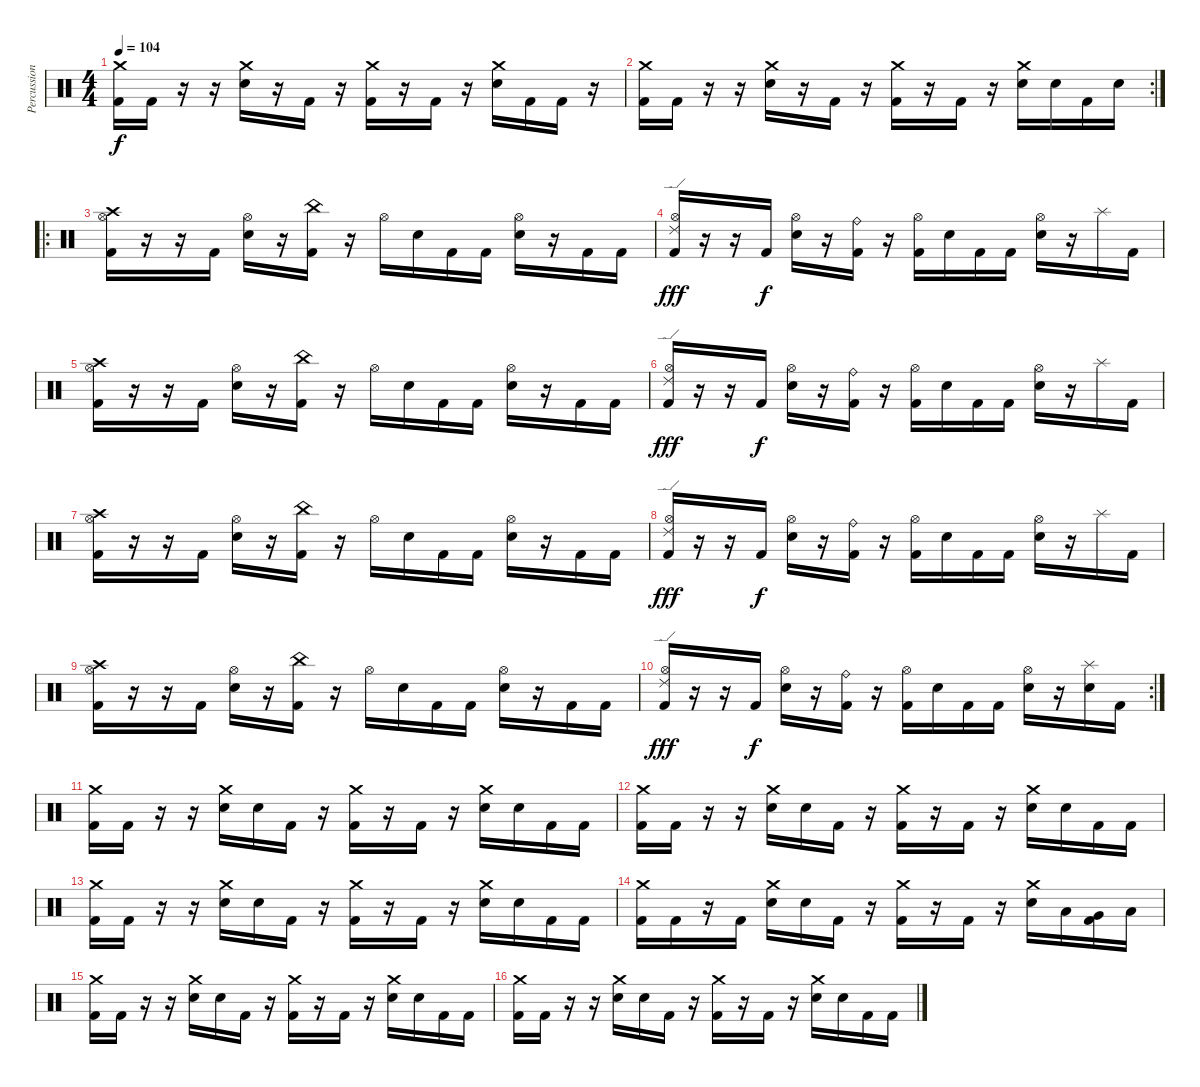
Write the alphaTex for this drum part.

\track ("Percussion" "Percussion") {instrument percussion}
\staff {score}
\articulation defaults
\ts (4 4)
\tempo 104
\clef neutral
\ks c
("Crash medium (hit)" "Kick (hit) 2").16{dy f} "Kick (hit) 2".16 r.16 r.16 ("Crash medium (hit)" "Electric Snare (hit)").16 r.16 "Kick (hit) 2".16 r.16 ("Crash medium (hit)" "Kick (hit) 2").16 r.16 "Kick (hit) 2".16 r.16 ("Crash medium (hit)" "Electric Snare (hit)").16 "Kick (hit) 2".16 "Kick (hit) 2".16 r.16 |
\rc 2
("Crash medium (hit)" "Kick (hit) 2").16 "Kick (hit) 2".16 r.16 r.16 ("Crash medium (hit)" "Electric Snare (hit)").16 r.16 "Kick (hit) 2".16 r.16 ("Crash medium (hit)" "Kick (hit) 2").16 r.16 "Kick (hit) 2".16 r.16 ("Crash medium (hit)" "Electric Snare (hit)").16 "Electric Snare (hit)".16 "Kick (hit) 2".16 "Electric Snare (hit)".16 |
\ro
("Crash high (hit)" "Hi-Hat (open)" "Kick (hit) 2").16 r.16 r.16 "Kick (hit) 2".16 ("Hi-Hat (open)" "Electric Snare (hit)").16 r.16 ("China (hit)" "Kick (hit) 2").16 r.16 "Hi-Hat (open)".16 "Electric Snare (hit)".16 "Kick (hit) 2".16 "Kick (hit) 2".16 ("Hi-Hat (open)" "Electric Snare (hit)").16 r.16 "Kick (hit) 2".16 "Kick (hit) 2".16 |
("Ride (edge) 2" "Hi-Hat (open)" "Kick (hit) 2").16{dy fff} r.16 r.16 "Kick (hit) 2".16{dy f} ("Hi-Hat (open)" "Electric Snare (hit)").16 r.16 ("Ride (bell)" "Kick (hit) 2").16 r.16 ("Hi-Hat (open)" "Kick (hit) 2").16 "Electric Snare (hit)".16 "Kick (hit) 2".16 "Kick (hit) 2".16 ("Hi-Hat (open)" "Electric Snare (hit)").16 r.16 "Splash (hit)".16 "Kick (hit) 2".16 |
("Crash high (hit)" "Hi-Hat (open)" "Kick (hit) 2").16 r.16 r.16 "Kick (hit) 2".16 ("Hi-Hat (open)" "Electric Snare (hit)").16 r.16 ("China (hit)" "Kick (hit) 2").16 r.16 "Hi-Hat (open)".16 "Electric Snare (hit)".16 "Kick (hit) 2".16 "Kick (hit) 2".16 ("Hi-Hat (open)" "Electric Snare (hit)").16 r.16 "Kick (hit) 2".16 "Kick (hit) 2".16 |
("Ride (edge) 2" "Hi-Hat (open)" "Kick (hit) 2").16{dy fff} r.16 r.16 "Kick (hit) 2".16{dy f} ("Hi-Hat (open)" "Electric Snare (hit)").16 r.16 ("Ride (bell)" "Kick (hit) 2").16 r.16 ("Hi-Hat (open)" "Kick (hit) 2").16 "Electric Snare (hit)".16 "Kick (hit) 2".16 "Kick (hit) 2".16 ("Hi-Hat (open)" "Electric Snare (hit)").16 r.16 "Splash (hit)".16 "Kick (hit) 2".16 |
("Crash high (hit)" "Hi-Hat (open)" "Kick (hit) 2").16 r.16 r.16 "Kick (hit) 2".16 ("Hi-Hat (open)" "Electric Snare (hit)").16 r.16 ("China (hit)" "Kick (hit) 2").16 r.16 "Hi-Hat (open)".16 "Electric Snare (hit)".16 "Kick (hit) 2".16 "Kick (hit) 2".16 ("Hi-Hat (open)" "Electric Snare (hit)").16 r.16 "Kick (hit) 2".16 "Kick (hit) 2".16 |
("Ride (edge) 2" "Hi-Hat (open)" "Kick (hit) 2").16{dy fff} r.16 r.16 "Kick (hit) 2".16{dy f} ("Hi-Hat (open)" "Electric Snare (hit)").16 r.16 ("Ride (bell)" "Kick (hit) 2").16 r.16 ("Hi-Hat (open)" "Kick (hit) 2").16 "Electric Snare (hit)".16 "Kick (hit) 2".16 "Kick (hit) 2".16 ("Hi-Hat (open)" "Electric Snare (hit)").16 r.16 "Splash (hit)".16 "Kick (hit) 2".16 |
("Crash high (hit)" "Hi-Hat (open)" "Kick (hit) 2").16 r.16 r.16 "Kick (hit) 2".16 ("Hi-Hat (open)" "Electric Snare (hit)").16 r.16 ("China (hit)" "Kick (hit) 2").16 r.16 "Hi-Hat (open)".16 "Electric Snare (hit)".16 "Kick (hit) 2".16 "Kick (hit) 2".16 ("Hi-Hat (open)" "Electric Snare (hit)").16 r.16 "Kick (hit) 2".16 "Kick (hit) 2".16 |
\rc 2
("Ride (edge) 2" "Hi-Hat (open)" "Kick (hit) 2").16{dy fff} r.16 r.16 "Kick (hit) 2".16{dy f} ("Hi-Hat (open)" "Electric Snare (hit)").16 r.16 ("Ride (bell)" "Kick (hit) 2").16 r.16 ("Hi-Hat (open)" "Kick (hit) 2").16 "Electric Snare (hit)".16 "Kick (hit) 2".16 "Kick (hit) 2".16 ("Hi-Hat (open)" "Electric Snare (hit)").16 r.16 ("Splash (hit)" "Electric Snare (hit)").16 "Kick (hit) 2".16 |
("Crash medium (hit)" "Kick (hit) 2").16 "Kick (hit) 2".16 r.16 r.16 ("Crash medium (hit)" "Electric Snare (hit)").16 "Electric Snare (hit)".16 "Kick (hit) 2".16 r.16 ("Crash medium (hit)" "Kick (hit) 2").16 r.16 "Kick (hit) 2".16 r.16 ("Crash medium (hit)" "Electric Snare (hit)").16 "Electric Snare (hit)".16 "Kick (hit) 2".16 "Kick (hit) 2".16 |
("Crash medium (hit)" "Kick (hit) 2").16 "Kick (hit) 2".16 r.16 r.16 ("Crash medium (hit)" "Electric Snare (hit)").16 "Electric Snare (hit)".16 "Kick (hit) 2".16 r.16 ("Crash medium (hit)" "Kick (hit) 2").16 r.16 "Kick (hit) 2".16 r.16 ("Crash medium (hit)" "Electric Snare (hit)").16 "Electric Snare (hit)".16 "Kick (hit) 2".16 "Kick (hit) 2".16 |
("Crash medium (hit)" "Kick (hit) 2").16 "Kick (hit) 2".16 r.16 r.16 ("Crash medium (hit)" "Electric Snare (hit)").16 "Electric Snare (hit)".16 "Kick (hit) 2".16 r.16 ("Crash medium (hit)" "Kick (hit) 2").16 r.16 "Kick (hit) 2".16 r.16 ("Crash medium (hit)" "Electric Snare (hit)").16 "Electric Snare (hit)".16 "Kick (hit) 2".16 "Kick (hit) 2".16 |
("Crash medium (hit)" "Kick (hit) 2").16 "Kick (hit) 2".16 r.16 "Kick (hit) 2".16 ("Crash medium (hit)" "Electric Snare (hit)").16 "Electric Snare (hit)".16 "Kick (hit) 2".16 r.16 ("Crash medium (hit)" "Kick (hit) 2").16 r.16 "Kick (hit) 2".16 r.16 ("Crash medium (hit)" "Electric Snare (hit)").16 "Low Tom (hit)".16 ("Very Low Tom (hit)" "Kick (hit) 2").16 "Low Floor Tom (hit)".16 |
("Crash medium (hit)" "Kick (hit) 2").16 "Kick (hit) 2".16 r.16 r.16 ("Crash medium (hit)" "Electric Snare (hit)").16 "Electric Snare (hit)".16 "Kick (hit) 2".16 r.16 ("Crash medium (hit)" "Kick (hit) 2").16 r.16 "Kick (hit) 2".16 r.16 ("Crash medium (hit)" "Electric Snare (hit)").16 "Electric Snare (hit)".16 "Kick (hit) 2".16 "Kick (hit) 2".16 |
("Crash medium (hit)" "Kick (hit) 2").16 "Kick (hit) 2".16 r.16 r.16 ("Crash medium (hit)" "Electric Snare (hit)").16 "Electric Snare (hit)".16 "Kick (hit) 2".16 r.16 ("Crash medium (hit)" "Kick (hit) 2").16 r.16 "Kick (hit) 2".16 r.16 ("Crash medium (hit)" "Electric Snare (hit)").16 "Electric Snare (hit)".16 "Kick (hit) 2".16 "Kick (hit) 2".16
